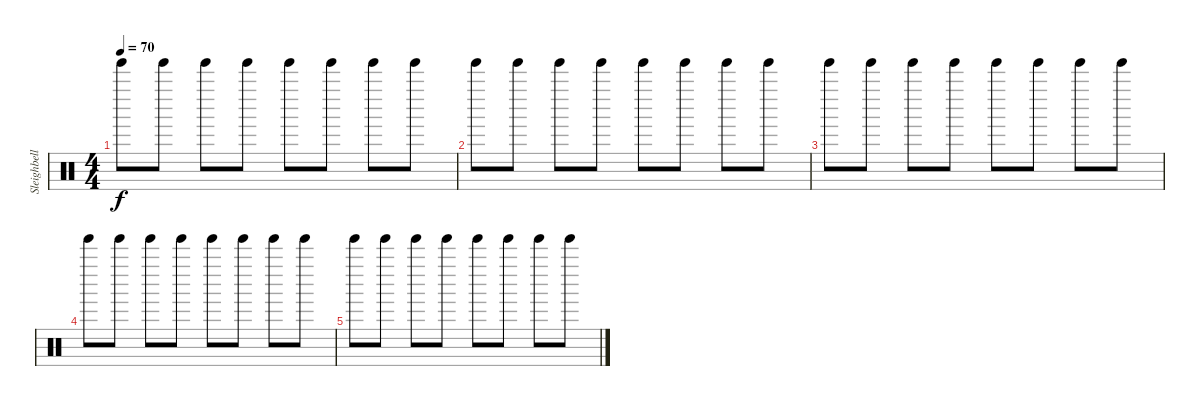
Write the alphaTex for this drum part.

\track ("Sleighbells" "Sleighbell") {instrument percussion}
\staff {score}
\articulation defaults
\ts (4 4)
\tempo 70
\clef neutral
\ks c "Tinkle Bell (hit)".8{dy f} "Tinkle Bell (hit)".8 "Tinkle Bell (hit)".8 "Tinkle Bell (hit)".8 "Tinkle Bell (hit)".8 "Tinkle Bell (hit)".8 "Tinkle Bell (hit)".8 "Tinkle Bell (hit)".8
|
"Tinkle Bell (hit)".8 "Tinkle Bell (hit)".8 "Tinkle Bell (hit)".8 "Tinkle Bell (hit)".8 "Tinkle Bell (hit)".8 "Tinkle Bell (hit)".8 "Tinkle Bell (hit)".8 "Tinkle Bell (hit)".8 |
"Tinkle Bell (hit)".8 "Tinkle Bell (hit)".8 "Tinkle Bell (hit)".8 "Tinkle Bell (hit)".8 "Tinkle Bell (hit)".8 "Tinkle Bell (hit)".8 "Tinkle Bell (hit)".8 "Tinkle Bell (hit)".8 |
"Tinkle Bell (hit)".8 "Tinkle Bell (hit)".8 "Tinkle Bell (hit)".8 "Tinkle Bell (hit)".8 "Tinkle Bell (hit)".8 "Tinkle Bell (hit)".8 "Tinkle Bell (hit)".8 "Tinkle Bell (hit)".8 |
"Tinkle Bell (hit)".8 "Tinkle Bell (hit)".8 "Tinkle Bell (hit)".8 "Tinkle Bell (hit)".8 "Tinkle Bell (hit)".8 "Tinkle Bell (hit)".8 "Tinkle Bell (hit)".8 "Tinkle Bell (hit)".8
